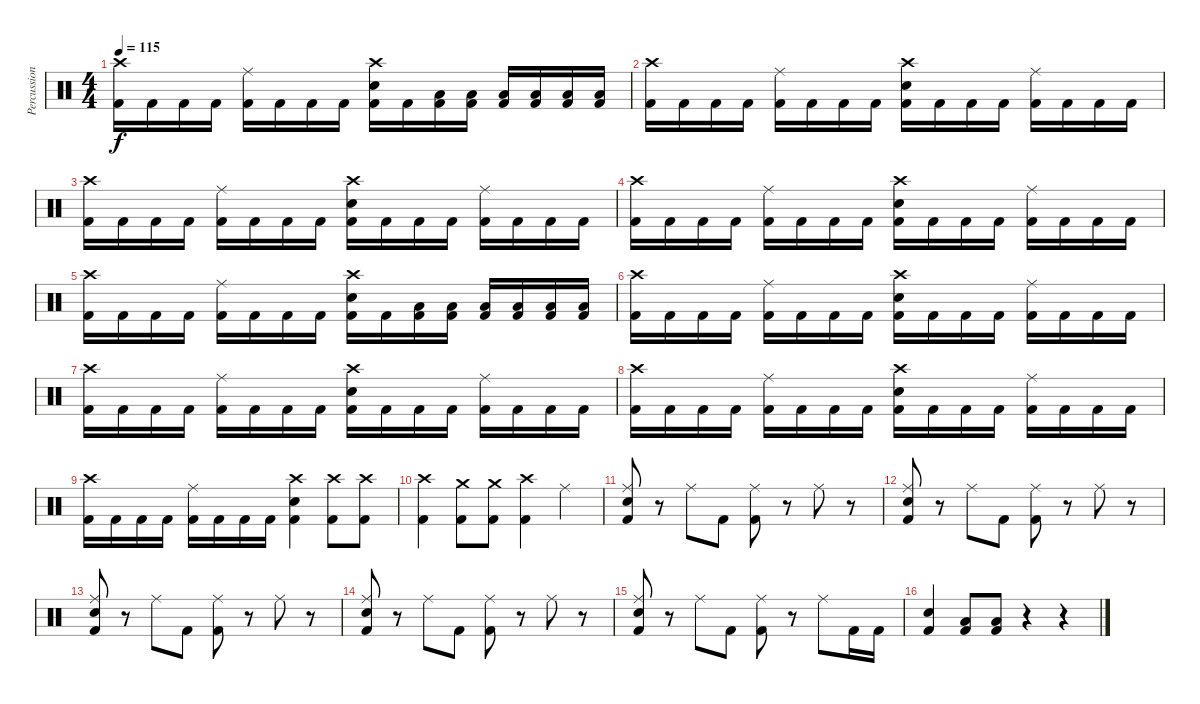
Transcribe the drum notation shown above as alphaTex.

\track ("Percussion" "Percussion") {instrument percussion}
\staff {score}
\articulation defaults
\ts (4 4)
\tempo 115
\clef neutral
\ks c
("Crash high (hit)" "Kick (hit) 2").16{dy f} "Kick (hit) 2".16 "Kick (hit) 2".16 "Kick (hit) 2".16 ("Ride (middle)" "Kick (hit) 2").16 "Kick (hit) 2".16 "Kick (hit) 2".16 "Kick (hit) 2".16 ("Crash high (hit)" "Electric Snare (hit)" "Kick (hit) 2").16 "Kick (hit) 2".16 ("Low Floor Tom (hit)" "Kick (hit) 2").16 ("Low Floor Tom (hit)" "Kick (hit) 2").16 ("Low Floor Tom (hit)" "Kick (hit) 2").16 ("Low Floor Tom (hit)" "Kick (hit) 2").16 ("Low Floor Tom (hit)" "Kick (hit) 2").16 ("Low Floor Tom (hit)" "Kick (hit) 2").16 |
("Crash high (hit)" "Kick (hit) 2").16 "Kick (hit) 2".16 "Kick (hit) 2".16 "Kick (hit) 2".16 ("Ride (middle)" "Kick (hit) 2").16 "Kick (hit) 2".16 "Kick (hit) 2".16 "Kick (hit) 2".16 ("Crash high (hit)" "Electric Snare (hit)" "Kick (hit) 2").16 "Kick (hit) 2".16 "Kick (hit) 2".16 "Kick (hit) 2".16 ("Ride (middle)" "Kick (hit) 2").16 "Kick (hit) 2".16 "Kick (hit) 2".16 "Kick (hit) 2".16 |
("Crash high (hit)" "Kick (hit) 2").16 "Kick (hit) 2".16 "Kick (hit) 2".16 "Kick (hit) 2".16 ("Ride (middle)" "Kick (hit) 2").16 "Kick (hit) 2".16 "Kick (hit) 2".16 "Kick (hit) 2".16 ("Crash high (hit)" "Electric Snare (hit)" "Kick (hit) 2").16 "Kick (hit) 2".16 "Kick (hit) 2".16 "Kick (hit) 2".16 ("Ride (middle)" "Kick (hit) 2").16 "Kick (hit) 2".16 "Kick (hit) 2".16 "Kick (hit) 2".16 |
("Crash high (hit)" "Kick (hit) 2").16 "Kick (hit) 2".16 "Kick (hit) 2".16 "Kick (hit) 2".16 ("Ride (middle)" "Kick (hit) 2").16 "Kick (hit) 2".16 "Kick (hit) 2".16 "Kick (hit) 2".16 ("Crash high (hit)" "Electric Snare (hit)" "Kick (hit) 2").16 "Kick (hit) 2".16 "Kick (hit) 2".16 "Kick (hit) 2".16 ("Ride (middle)" "Kick (hit) 2").16 "Kick (hit) 2".16 "Kick (hit) 2".16 "Kick (hit) 2".16 |
("Crash high (hit)" "Kick (hit) 2").16 "Kick (hit) 2".16 "Kick (hit) 2".16 "Kick (hit) 2".16 ("Ride (middle)" "Kick (hit) 2").16 "Kick (hit) 2".16 "Kick (hit) 2".16 "Kick (hit) 2".16 ("Crash high (hit)" "Electric Snare (hit)" "Kick (hit) 2").16 "Kick (hit) 2".16 ("Low Floor Tom (hit)" "Kick (hit) 2").16 ("Low Floor Tom (hit)" "Kick (hit) 2").16 ("Low Floor Tom (hit)" "Kick (hit) 2").16 ("Low Floor Tom (hit)" "Kick (hit) 2").16 ("Low Floor Tom (hit)" "Kick (hit) 2").16 ("Low Floor Tom (hit)" "Kick (hit) 2").16 |
("Crash high (hit)" "Kick (hit) 2").16 "Kick (hit) 2".16 "Kick (hit) 2".16 "Kick (hit) 2".16 ("Ride (middle)" "Kick (hit) 2").16 "Kick (hit) 2".16 "Kick (hit) 2".16 "Kick (hit) 2".16 ("Crash high (hit)" "Electric Snare (hit)" "Kick (hit) 2").16 "Kick (hit) 2".16 "Kick (hit) 2".16 "Kick (hit) 2".16 ("Ride (middle)" "Kick (hit) 2").16 "Kick (hit) 2".16 "Kick (hit) 2".16 "Kick (hit) 2".16 |
("Crash high (hit)" "Kick (hit) 2").16 "Kick (hit) 2".16 "Kick (hit) 2".16 "Kick (hit) 2".16 ("Ride (middle)" "Kick (hit) 2").16 "Kick (hit) 2".16 "Kick (hit) 2".16 "Kick (hit) 2".16 ("Crash high (hit)" "Electric Snare (hit)" "Kick (hit) 2").16 "Kick (hit) 2".16 "Kick (hit) 2".16 "Kick (hit) 2".16 ("Ride (middle)" "Kick (hit) 2").16 "Kick (hit) 2".16 "Kick (hit) 2".16 "Kick (hit) 2".16 |
("Crash high (hit)" "Kick (hit) 2").16 "Kick (hit) 2".16 "Kick (hit) 2".16 "Kick (hit) 2".16 ("Ride (middle)" "Kick (hit) 2").16 "Kick (hit) 2".16 "Kick (hit) 2".16 "Kick (hit) 2".16 ("Crash high (hit)" "Electric Snare (hit)" "Kick (hit) 2").16 "Kick (hit) 2".16 "Kick (hit) 2".16 "Kick (hit) 2".16 ("Ride (middle)" "Kick (hit) 2").16 "Kick (hit) 2".16 "Kick (hit) 2".16 "Kick (hit) 2".16 |
("Crash high (hit)" "Kick (hit) 2").16 "Kick (hit) 2".16 "Kick (hit) 2".16 "Kick (hit) 2".16 ("Ride (middle)" "Kick (hit) 2").16 "Kick (hit) 2".16 "Kick (hit) 2".16 "Kick (hit) 2".16 ("Crash high (hit)" "Electric Snare (hit)" "Kick (hit) 2").4 ("Crash high (hit)" "Kick (hit) 2").8 ("Crash high (hit)" "Kick (hit) 2").8 |
("Crash high (hit)" "Kick (hit) 2").4 ("Crash medium (hit)" "Kick (hit) 2").8 ("Crash medium (hit)" "Kick (hit) 2").8 ("Crash high (hit)" "Kick (hit) 2").4 "Ride (middle)".4 |
("Ride (middle)" "Electric Snare (hit)" "Kick (hit) 2").8 r.8 "Ride (middle)".8 "Kick (hit) 2".8 ("Ride (middle)" "Kick (hit) 2").8 r.8 "Ride (middle)".8 r.8 |
("Ride (middle)" "Electric Snare (hit)" "Kick (hit) 2").8 r.8 "Ride (middle)".8 "Kick (hit) 2".8 ("Ride (middle)" "Kick (hit) 2").8 r.8 "Ride (middle)".8 r.8 |
("Ride (middle)" "Electric Snare (hit)" "Kick (hit) 2").8 r.8 "Ride (middle)".8 "Kick (hit) 2".8 ("Ride (middle)" "Kick (hit) 2").8 r.8 "Ride (middle)".8 r.8 |
("Ride (middle)" "Electric Snare (hit)" "Kick (hit) 2").8 r.8 "Ride (middle)".8 "Kick (hit) 2".8 ("Ride (middle)" "Kick (hit) 2").8 r.8 "Ride (middle)".8 r.8 |
("Ride (middle)" "Electric Snare (hit)" "Kick (hit) 2").8 r.8 "Ride (middle)".8 "Kick (hit) 2".8 ("Ride (middle)" "Kick (hit) 2").8 r.8 "Ride (middle)".8 "Kick (hit) 2".16 "Kick (hit) 2".16 |
("Electric Snare (hit)" "Kick (hit) 2").4 ("Low Floor Tom (hit)" "Kick (hit) 2").8 ("Low Floor Tom (hit)" "Kick (hit) 2").8 r.4 r.4
